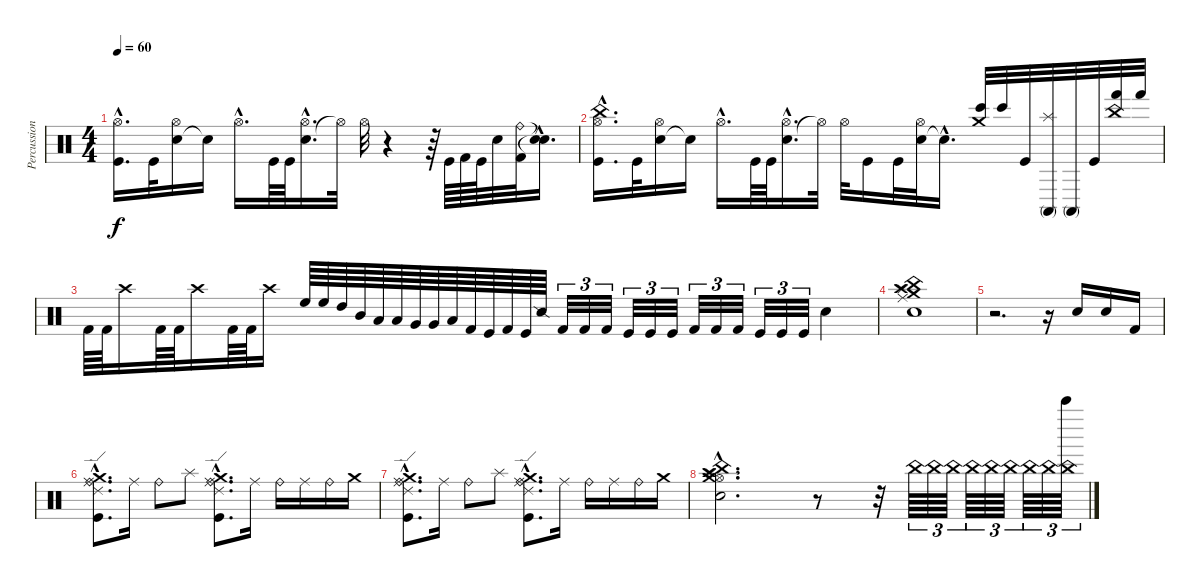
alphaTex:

\track ("Percussions" "Percussion") {instrument percussion}
\staff {score}
\articulation defaults
\ts (4 4)
\tempo 60
\clef neutral
\ks c
("Kick (hit)"{hac} "Hi-Hat (open)"{hac}).16{d dy f} "Kick (hit)".32 ("Snare (hit) 2" "Hi-Hat (open)").16 "Snare (hit)"{t}.16 "Hi-Hat (open)"{hac}.16{d} "Kick (hit)".64 "Kick (hit)".64 ("Snare (hit) 2"{hac} "Hi-Hat (open)"{hac}).16{d} "Hi-Hat (open)"{t}.32 "Hi-Hat (open)".32 r.4 r.64 "Kick (hit)".64 "Kick (hit) 2".64 "Kick (hit)".64 "Snare (hit) 2".32 ("Kick (hit) 2" "Ride (bell)").32 ("Snare (hit)"{hac t} "Snare (hit)"{hac t}).16{d} |
("Kick (hit)"{hac} "China (hit)"{hac} "Hi-Hat (open)"{hac}).16{d} "Kick (hit)".32 ("Snare (hit) 2" "Hi-Hat (open)").16 "Snare (hit)"{t}.16 "Hi-Hat (open)"{hac}.16{d} "Kick (hit)".64 "Kick (hit)".64 ("Snare (hit) 2"{hac} "Hi-Hat (open)"{hac}).16{d} "Hi-Hat (open)"{t}.32 "Hi-Hat (open)".32 "Kick (hit)".16 "Kick (hit)".32 ("Snare (hit) 2" "Hi-Hat (open)").32 "Snare (hit)"{hac t}.16{d} ("Bongo High (hit)" "Crash medium (hit)").32 "Bongo High (hit)".32 "Kick (hit)".32 ("Conga high (mute)" "Splash (hit)").32 "Conga high (mute)".32 "Kick (hit)".32 ("Hand (hit)" "China (hit)").32 "Hand (hit)".32 |
"Kick (hit) 2".64 "Kick (hit) 2".64 "Crash high (hit)".16 "Kick (hit) 2".64 "Kick (hit) 2".64 "Crash high (hit)".16 "Kick (hit) 2".64 "Kick (hit) 2".64 "Crash high (hit)".16 "High Floor Tom (hit)".64 "High Floor Tom (hit)".64 "High Tom (hit)".64 "Mid Tom (hit)".64 "Low Tom (hit)".64 "Low Tom (hit)".64 "Very Low Tom (hit)".64 "Very Low Tom (hit)".64 "Low Floor Tom (hit)".64 "Kick (hit) 2".64 "Kick (hit)".64 "Kick (hit) 2".64 "Kick (hit)".64 "Snare (side stick) 2".64 "Kick (hit) 2".32{tu (3 2)} "Kick (hit) 2".32{tu (3 2)} "Kick (hit) 2".32{tu (3 2)} "Kick (hit)".32{tu (3 2)} "Kick (hit)".32{tu (3 2)} "Kick (hit)".32{tu (3 2)} "Kick (hit) 2".32{tu (3 2)} "Kick (hit) 2".32{tu (3 2)} "Kick (hit) 2".32{tu (3 2)} "Kick (hit)".32{tu (3 2)} "Kick (hit)".32{tu (3 2)} "Kick (hit)".32{tu (3 2)} "Electric Snare (hit)".4 |
("Snare (hit) 2" "Ride (middle)" "China (hit)" "Crash high (hit)" "Crash medium (hit)" "Splash (hit)").1 |
r.2{d} r.16 "Snare (hit) 2".16 "Snare (hit) 2".16 "Kick (hit) 2".16 |
("Ride (bell)"{hac} "Ride (middle)"{hac} "Ride (edge) 2"{hac} "Crash medium (hit)"{hac} "Kick (hit)"{hac}).8{d} "Ride (middle)".16 "Ride (bell)".8 "Splash (hit)".8 ("Ride (bell)"{hac} "Ride (middle)"{hac} "Ride (edge) 2"{hac} "Crash medium (hit)"{hac} "Kick (hit)"{hac}).8{d} "Ride (middle)".16 "Ride (bell)".16 "Ride (middle)".16 "Ride (bell)".16 "Crash medium (hit)".16 |
("Ride (bell)"{hac} "Ride (middle)"{hac} "Ride (edge) 2"{hac} "Crash medium (hit)"{hac} "Kick (hit)"{hac}).8{d} "Ride (middle)".16 "Ride (bell)".8 "Splash (hit)".8 ("Ride (bell)"{hac} "Ride (middle)"{hac} "Ride (edge) 2"{hac} "Crash medium (hit)"{hac} "Kick (hit)"{hac}).8{d} "Ride (middle)".16 "Ride (bell)".16 "Ride (middle)".16 "Ride (bell)".16 "Crash medium (hit)".16 |
("China (hit)"{hac} "Hi-Hat (open)"{hac} "Snare (hit) 2"{hac} "Crash medium (hit)"{hac} "Splash (hit)"{hac} "Crash high (hit)"{hac}).2{d} r.8 r.32 "China (hit)".64{tu (3 2)} "China (hit)".64{tu (3 2)} "China (hit)".64{tu (3 2)} "China (hit)".64{tu (3 2)} "China (hit)".64{tu (3 2)} "China (hit)".64{tu (3 2)} "China (hit)".64{tu (3 2)} "China (hit)".64{tu (3 2)} ("China (hit)" "Bell Tree (hit)").64{tu (3 2)}
